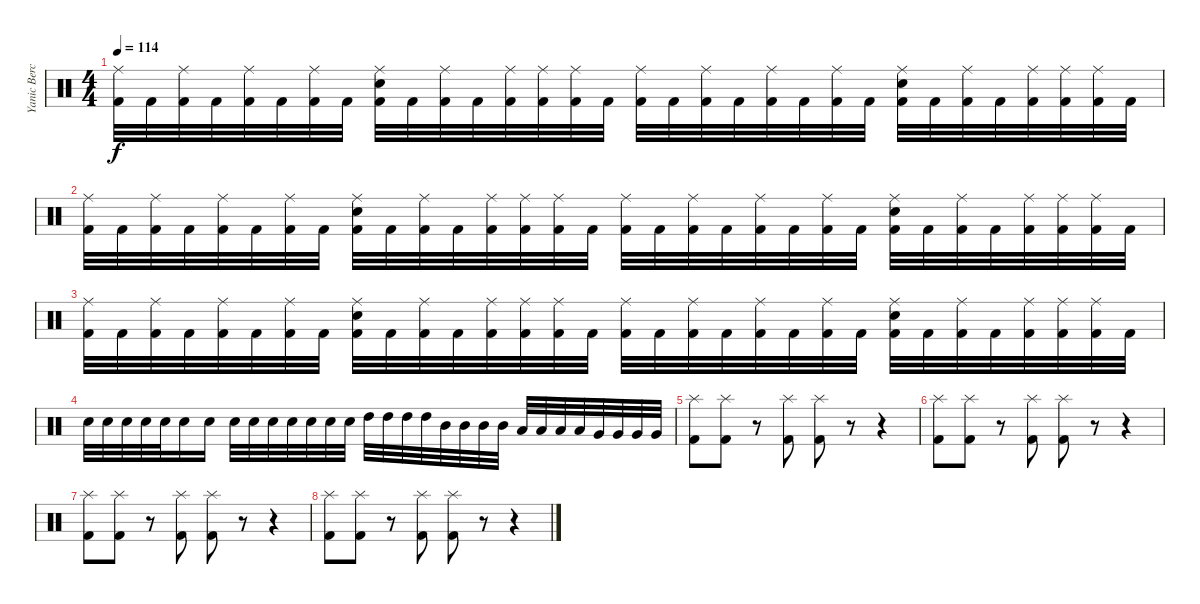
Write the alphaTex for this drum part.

\track ("Yanic Bercier" "Yanic Berc") {instrument percussion}
\staff {score}
\articulation defaults
\ts (4 4)
\tempo 114
\clef neutral
\ks c
("Ride (middle)" "Kick (hit) 2").32{dy f} "Kick (hit) 2".32 ("Ride (middle)" "Kick (hit) 2").32 "Kick (hit) 2".32 ("Ride (middle)" "Kick (hit) 2").32 "Kick (hit) 2".32 ("Ride (middle)" "Kick (hit) 2").32 "Kick (hit) 2".32 ("Ride (middle)" "Electric Snare (hit)" "Kick (hit) 2").32 "Kick (hit) 2".32 ("Ride (middle)" "Kick (hit) 2").32 "Kick (hit) 2".32 ("Ride (middle)" "Kick (hit) 2").32 ("Ride (middle)" "Kick (hit) 2").32 ("Ride (middle)" "Kick (hit) 2").32 "Kick (hit) 2".32 ("Ride (middle)" "Kick (hit) 2").32 "Kick (hit) 2".32 ("Ride (middle)" "Kick (hit) 2").32 "Kick (hit) 2".32 ("Ride (middle)" "Kick (hit) 2").32 "Kick (hit) 2".32 ("Ride (middle)" "Kick (hit) 2").32 "Kick (hit) 2".32 ("Ride (middle)" "Electric Snare (hit)" "Kick (hit) 2").32 "Kick (hit) 2".32 ("Ride (middle)" "Kick (hit) 2").32 "Kick (hit) 2".32 ("Ride (middle)" "Kick (hit) 2").32 ("Ride (middle)" "Kick (hit) 2").32 ("Ride (middle)" "Kick (hit) 2").32 "Kick (hit) 2".32 |
("Ride (middle)" "Kick (hit) 2").32 "Kick (hit) 2".32 ("Ride (middle)" "Kick (hit) 2").32 "Kick (hit) 2".32 ("Ride (middle)" "Kick (hit) 2").32 "Kick (hit) 2".32 ("Ride (middle)" "Kick (hit) 2").32 "Kick (hit) 2".32 ("Ride (middle)" "Electric Snare (hit)" "Kick (hit) 2").32 "Kick (hit) 2".32 ("Ride (middle)" "Kick (hit) 2").32 "Kick (hit) 2".32 ("Ride (middle)" "Kick (hit) 2").32 ("Ride (middle)" "Kick (hit) 2").32 ("Ride (middle)" "Kick (hit) 2").32 "Kick (hit) 2".32 ("Ride (middle)" "Kick (hit) 2").32 "Kick (hit) 2".32 ("Ride (middle)" "Kick (hit) 2").32 "Kick (hit) 2".32 ("Ride (middle)" "Kick (hit) 2").32 "Kick (hit) 2".32 ("Ride (middle)" "Kick (hit) 2").32 "Kick (hit) 2".32 ("Ride (middle)" "Electric Snare (hit)" "Kick (hit) 2").32 "Kick (hit) 2".32 ("Ride (middle)" "Kick (hit) 2").32 "Kick (hit) 2".32 ("Ride (middle)" "Kick (hit) 2").32 ("Ride (middle)" "Kick (hit) 2").32 ("Ride (middle)" "Kick (hit) 2").32 "Kick (hit) 2".32 |
("Ride (middle)" "Kick (hit) 2").32 "Kick (hit) 2".32 ("Ride (middle)" "Kick (hit) 2").32 "Kick (hit) 2".32 ("Ride (middle)" "Kick (hit) 2").32 "Kick (hit) 2".32 ("Ride (middle)" "Kick (hit) 2").32 "Kick (hit) 2".32 ("Ride (middle)" "Electric Snare (hit)" "Kick (hit) 2").32 "Kick (hit) 2".32 ("Ride (middle)" "Kick (hit) 2").32 "Kick (hit) 2".32 ("Ride (middle)" "Kick (hit) 2").32 ("Ride (middle)" "Kick (hit) 2").32 ("Ride (middle)" "Kick (hit) 2").32 "Kick (hit) 2".32 ("Ride (middle)" "Kick (hit) 2").32 "Kick (hit) 2".32 ("Ride (middle)" "Kick (hit) 2").32 "Kick (hit) 2".32 ("Ride (middle)" "Kick (hit) 2").32 "Kick (hit) 2".32 ("Ride (middle)" "Kick (hit) 2").32 "Kick (hit) 2".32 ("Ride (middle)" "Electric Snare (hit)" "Kick (hit) 2").32 "Kick (hit) 2".32 ("Ride (middle)" "Kick (hit) 2").32 "Kick (hit) 2".32 ("Ride (middle)" "Kick (hit) 2").32 ("Ride (middle)" "Kick (hit) 2").32 ("Ride (middle)" "Kick (hit) 2").32 "Kick (hit) 2".32 |
"Electric Snare (hit)".32 "Electric Snare (hit)".32 "Electric Snare (hit)".32 "Electric Snare (hit)".32 "Electric Snare (hit)".32 "Electric Snare (hit)".16 "Electric Snare (hit)".16 "Electric Snare (hit)".32 "Electric Snare (hit)".32 "Electric Snare (hit)".32 "Electric Snare (hit)".32 "Electric Snare (hit)".32 "Electric Snare (hit)".32 "Electric Snare (hit)".32 "High Tom (hit)".32 "High Tom (hit)".32 "High Tom (hit)".32 "High Tom (hit)".32 "Mid Tom (hit)".32 "Mid Tom (hit)".32 "Mid Tom (hit)".32 "Mid Tom (hit)".32 "Low Tom (hit)".32 "Low Tom (hit)".32 "Low Tom (hit)".32 "Low Tom (hit)".32 "Very Low Tom (hit)".32 "Very Low Tom (hit)".32 "Very Low Tom (hit)".32 "Very Low Tom (hit)".32 |
("Splash (hit)" "Kick (hit) 2").8 ("Splash (hit)" "Kick (hit) 2").8 r.8 ("Splash (hit)" "Kick (hit) 2").8 ("Splash (hit)" "Kick (hit) 2").8 r.8 r.4 |
("Splash (hit)" "Kick (hit) 2").8 ("Splash (hit)" "Kick (hit) 2").8 r.8 ("Splash (hit)" "Kick (hit) 2").8 ("Splash (hit)" "Kick (hit) 2").8 r.8 r.4 |
("Splash (hit)" "Kick (hit) 2").8 ("Splash (hit)" "Kick (hit) 2").8 r.8 ("Splash (hit)" "Kick (hit) 2").8 ("Splash (hit)" "Kick (hit) 2").8 r.8 r.4 |
("Splash (hit)" "Kick (hit) 2").8 ("Splash (hit)" "Kick (hit) 2").8 r.8 ("Splash (hit)" "Kick (hit) 2").8 ("Splash (hit)" "Kick (hit) 2").8 r.8 r.4
